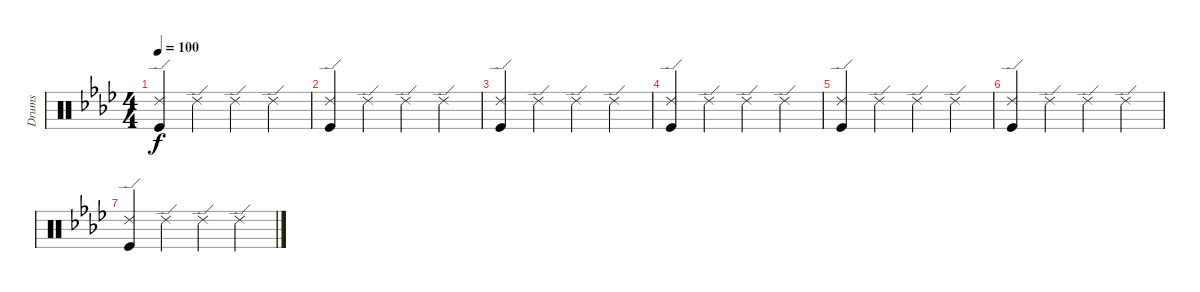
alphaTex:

\track ("Drums" "Drums") {instrument percussion}
\staff {score}
\articulation defaults
\ts (4 4)
\tempo 100
\clef neutral
\ks ab
("Ride (edge) 2" "Kick (hit)").4{dy f} "Ride (edge) 2".4 "Ride (edge) 2".4 "Ride (edge) 2".4 |
("Ride (edge) 2" "Kick (hit)").4 "Ride (edge) 2".4 "Ride (edge) 2".4 "Ride (edge) 2".4 |
("Ride (edge) 2" "Kick (hit)").4 "Ride (edge) 2".4 "Ride (edge) 2".4 "Ride (edge) 2".4 |
("Ride (edge) 2" "Kick (hit)").4 "Ride (edge) 2".4 "Ride (edge) 2".4 "Ride (edge) 2".4 |
("Ride (edge) 2" "Kick (hit)").4 "Ride (edge) 2".4 "Ride (edge) 2".4 "Ride (edge) 2".4 |
("Ride (edge) 2" "Kick (hit)").4 "Ride (edge) 2".4 "Ride (edge) 2".4 "Ride (edge) 2".4 |
("Ride (edge) 2" "Kick (hit)").4 "Ride (edge) 2".4 "Ride (edge) 2".4 "Ride (edge) 2".4
